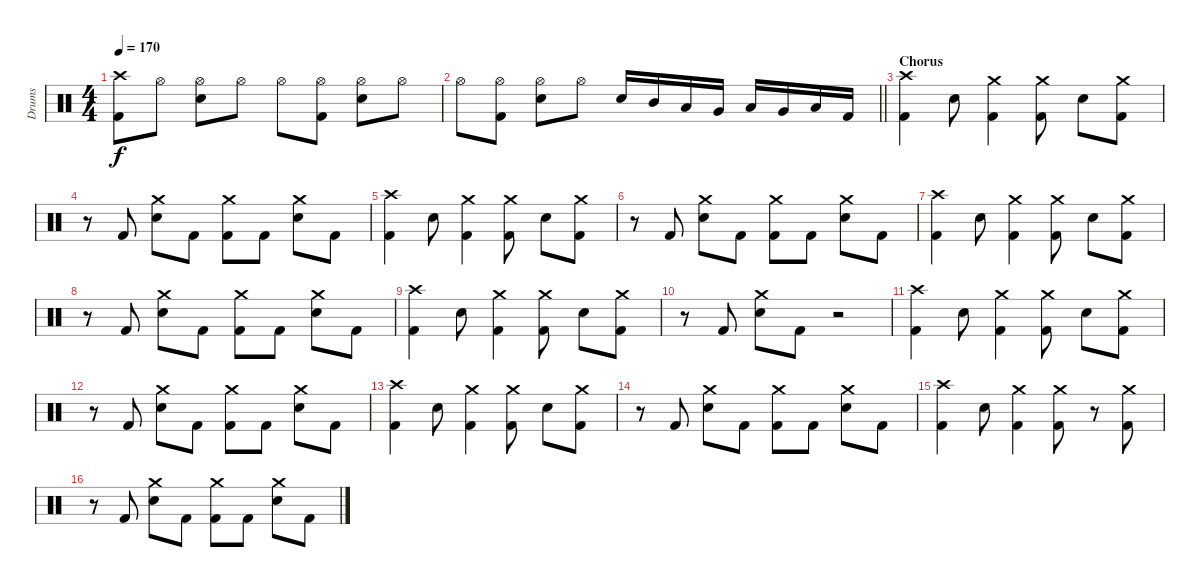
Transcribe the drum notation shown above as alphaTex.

\track ("Drums" "Drums") {instrument percussion}
\staff {score}
\articulation defaults
\ts (4 4)
\tempo 170
\clef neutral
\ks c
("Crash high (hit)" "Kick (hit) 2").8{dy f} "Hi-Hat (open)".8 ("Hi-Hat (open)" "Snare (hit) 2").8 "Hi-Hat (open)".8 "Hi-Hat (open)".8 ("Hi-Hat (open)" "Kick (hit) 2").8 ("Hi-Hat (open)" "Snare (hit) 2").8 "Hi-Hat (open)".8 |
\barLineRight lightlight "Hi-Hat (open)".8
("Hi-Hat (open)" "Kick (hit) 2").8 ("Hi-Hat (open)" "Snare (hit) 2").8 "Hi-Hat (open)".8 "Snare (hit) 2".16 "Mid Tom (hit)".16 "Low Tom (hit)".16 "Very Low Tom (hit)".16 "Low Tom (hit)".16 "Very Low Tom (hit)".16 "Low Floor Tom (hit)".16 "Kick (hit) 2".16 |
\section ("" "Chorus")
("Crash high (hit)" "Kick (hit) 2").4 "Snare (hit) 2".8 ("Crash medium (hit)" "Kick (hit) 2").4 ("Crash medium (hit)" "Kick (hit) 2").8 "Snare (hit) 2".8 ("Crash medium (hit)" "Kick (hit) 2").8 |
r.8 "Kick (hit) 2".8 ("Crash medium (hit)" "Snare (hit) 2").8 "Kick (hit) 2".8 ("Crash medium (hit)" "Kick (hit) 2").8 "Kick (hit) 2".8 ("Crash medium (hit)" "Snare (hit) 2").8 "Kick (hit) 2".8 |
("Crash high (hit)" "Kick (hit) 2").4 "Snare (hit) 2".8 ("Crash medium (hit)" "Kick (hit) 2").4 ("Crash medium (hit)" "Kick (hit) 2").8 "Snare (hit) 2".8 ("Crash medium (hit)" "Kick (hit) 2").8 |
r.8 "Kick (hit) 2".8 ("Crash medium (hit)" "Snare (hit) 2").8 "Kick (hit) 2".8 ("Crash medium (hit)" "Kick (hit) 2").8 "Kick (hit) 2".8 ("Crash medium (hit)" "Snare (hit) 2").8 "Kick (hit) 2".8 |
("Crash high (hit)" "Kick (hit) 2").4 "Snare (hit) 2".8 ("Crash medium (hit)" "Kick (hit) 2").4 ("Crash medium (hit)" "Kick (hit) 2").8 "Snare (hit) 2".8 ("Crash medium (hit)" "Kick (hit) 2").8 |
r.8 "Kick (hit) 2".8 ("Crash medium (hit)" "Snare (hit) 2").8 "Kick (hit) 2".8 ("Crash medium (hit)" "Kick (hit) 2").8 "Kick (hit) 2".8 ("Crash medium (hit)" "Snare (hit) 2").8 "Kick (hit) 2".8 |
("Crash high (hit)" "Kick (hit) 2").4 "Snare (hit) 2".8 ("Crash medium (hit)" "Kick (hit) 2").4 ("Crash medium (hit)" "Kick (hit) 2").8 "Snare (hit) 2".8 ("Crash medium (hit)" "Kick (hit) 2").8 |
r.8 "Kick (hit) 2".8 ("Crash medium (hit)" "Snare (hit) 2").8 "Kick (hit) 2".8 r.2 |
("Crash high (hit)" "Kick (hit) 2").4 "Snare (hit) 2".8 ("Crash medium (hit)" "Kick (hit) 2").4 ("Crash medium (hit)" "Kick (hit) 2").8 "Snare (hit) 2".8 ("Crash medium (hit)" "Kick (hit) 2").8 |
r.8 "Kick (hit) 2".8 ("Crash medium (hit)" "Snare (hit) 2").8 "Kick (hit) 2".8 ("Crash medium (hit)" "Kick (hit) 2").8 "Kick (hit) 2".8 ("Crash medium (hit)" "Snare (hit) 2").8 "Kick (hit) 2".8 |
("Crash high (hit)" "Kick (hit) 2").4 "Snare (hit) 2".8 ("Crash medium (hit)" "Kick (hit) 2").4 ("Crash medium (hit)" "Kick (hit) 2").8 "Snare (hit) 2".8 ("Crash medium (hit)" "Kick (hit) 2").8 |
r.8 "Kick (hit) 2".8 ("Crash medium (hit)" "Snare (hit) 2").8 "Kick (hit) 2".8 ("Crash medium (hit)" "Kick (hit) 2").8 "Kick (hit) 2".8 ("Crash medium (hit)" "Snare (hit) 2").8 "Kick (hit) 2".8 |
("Crash high (hit)" "Kick (hit) 2").4 "Snare (hit) 2".8 ("Crash medium (hit)" "Kick (hit) 2").4 ("Crash medium (hit)" "Kick (hit) 2").8 r.8 ("Crash medium (hit)" "Kick (hit) 2").8 |
r.8 "Kick (hit) 2".8 ("Crash medium (hit)" "Snare (hit) 2").8 "Kick (hit) 2".8 ("Crash medium (hit)" "Kick (hit) 2").8 "Kick (hit) 2".8 ("Crash medium (hit)" "Snare (hit) 2").8 "Kick (hit) 2".8
